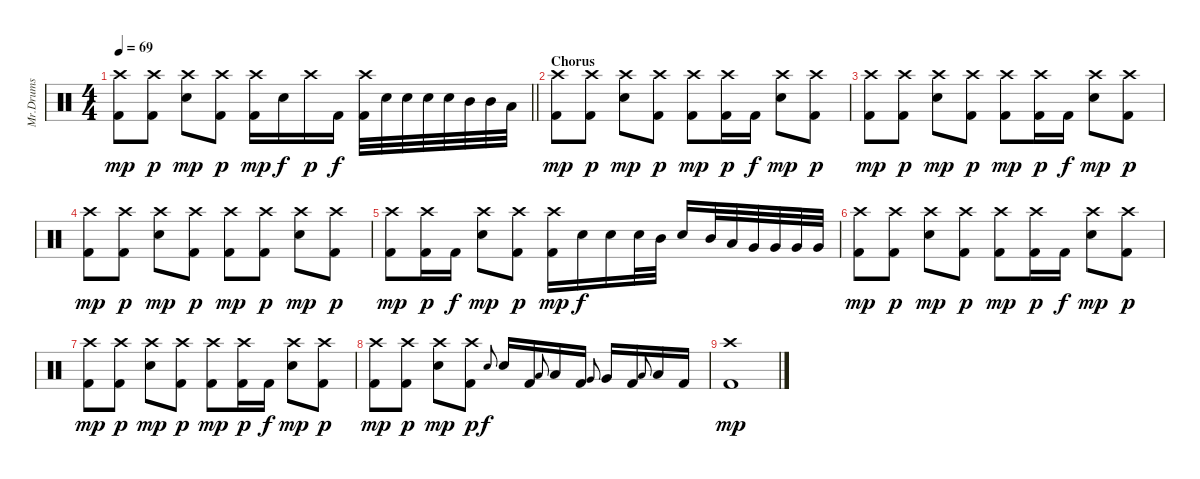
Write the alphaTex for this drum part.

\track ("Mr.Drums" "Mr.Drums") {instrument percussion}
\staff {score}
\articulation defaults
\ts (4 4)
\tempo 69
\clef neutral
\barLineRight lightlight
\ks c
("Crash high (hit)" "Kick (hit) 2").8{dy mp} ("Crash high (hit)" "Kick (hit) 2").8{dy p} ("Crash high (hit)" "Electric Snare (hit)").8{dy mp} ("Crash high (hit)" "Kick (hit) 2").8{dy p} ("Crash high (hit)" "Kick (hit) 2").16{dy mp} "Electric Snare (hit)".16{dy f} "Crash high (hit)".16{dy p} "Kick (hit) 2".16{dy f} ("Crash high (hit)" "Kick (hit) 2").32 "Electric Snare (hit)".32 "Electric Snare (hit)".32 "Electric Snare (hit)".32 "Electric Snare (hit)".32 "Mid Tom (hit)".32 "Mid Tom (hit)".32 "Low Tom (hit)".32 |
\section ("" "Chorus")
("Crash high (hit)" "Kick (hit) 2").8{dy mp} ("Crash high (hit)" "Kick (hit) 2").8{dy p} ("Crash high (hit)" "Electric Snare (hit)").8{dy mp} ("Crash high (hit)" "Kick (hit) 2").8{dy p} ("Crash high (hit)" "Kick (hit) 2").8{dy mp} ("Crash high (hit)" "Kick (hit) 2").16{dy p} "Kick (hit) 2".16{dy f} ("Crash high (hit)" "Electric Snare (hit)").8{dy mp} ("Crash high (hit)" "Kick (hit) 2").8{dy p} |
("Crash high (hit)" "Kick (hit) 2").8{dy mp} ("Crash high (hit)" "Kick (hit) 2").8{dy p} ("Crash high (hit)" "Electric Snare (hit)").8{dy mp} ("Crash high (hit)" "Kick (hit) 2").8{dy p} ("Crash high (hit)" "Kick (hit) 2").8{dy mp} ("Crash high (hit)" "Kick (hit) 2").16{dy p} "Kick (hit) 2".16{dy f} ("Crash high (hit)" "Electric Snare (hit)").8{dy mp} ("Crash high (hit)" "Kick (hit) 2").8{dy p} |
("Crash high (hit)" "Kick (hit) 2").8{dy mp} ("Crash high (hit)" "Kick (hit) 2").8{dy p} ("Crash high (hit)" "Electric Snare (hit)").8{dy mp} ("Crash high (hit)" "Kick (hit) 2").8{dy p} ("Crash high (hit)" "Kick (hit) 2").8{dy mp} ("Crash high (hit)" "Kick (hit) 2").8{dy p} ("Crash high (hit)" "Electric Snare (hit)").8{dy mp} ("Crash high (hit)" "Kick (hit) 2").8{dy p} |
("Crash high (hit)" "Kick (hit) 2").8{dy mp} ("Crash high (hit)" "Kick (hit) 2").16{dy p} "Kick (hit) 2".16{dy f} ("Crash high (hit)" "Electric Snare (hit)").8{dy mp} ("Crash high (hit)" "Kick (hit) 2").8{dy p} ("Crash high (hit)" "Kick (hit) 2").16{dy mp} "Electric Snare (hit)".16{dy f} "Electric Snare (hit)".16 "Electric Snare (hit)".32 "Mid Tom (hit)".32 "Electric Snare (hit)".16 "Mid Tom (hit)".32 "Low Tom (hit)".32 "Very Low Tom (hit)".32 "Very Low Tom (hit)".32 "Very Low Tom (hit)".32 "Very Low Tom (hit)".32 |
("Crash high (hit)" "Kick (hit) 2").8{dy mp} ("Crash high (hit)" "Kick (hit) 2").8{dy p} ("Crash high (hit)" "Electric Snare (hit)").8{dy mp} ("Crash high (hit)" "Kick (hit) 2").8{dy p} ("Crash high (hit)" "Kick (hit) 2").8{dy mp} ("Crash high (hit)" "Kick (hit) 2").16{dy p} "Kick (hit) 2".16{dy f} ("Crash high (hit)" "Electric Snare (hit)").8{dy mp} ("Crash high (hit)" "Kick (hit) 2").8{dy p} |
("Crash high (hit)" "Kick (hit) 2").8{dy mp} ("Crash high (hit)" "Kick (hit) 2").8{dy p} ("Crash high (hit)" "Electric Snare (hit)").8{dy mp} ("Crash high (hit)" "Kick (hit) 2").8{dy p} ("Crash high (hit)" "Kick (hit) 2").8{dy mp} ("Crash high (hit)" "Kick (hit) 2").16{dy p} "Kick (hit) 2".16{dy f} ("Crash high (hit)" "Electric Snare (hit)").8{dy mp} ("Crash high (hit)" "Kick (hit) 2").8{dy p} |
("Crash high (hit)" "Kick (hit) 2").8{dy mp} ("Crash high (hit)" "Kick (hit) 2").8{dy p} ("Crash high (hit)" "Electric Snare (hit)").8{dy mp} ("Crash high (hit)" "Kick (hit) 2").8{dy p} "Electric Snare (hit)".8{gr onbeat dy f} "Electric Snare (hit)".16 "Kick (hit) 2".16 "Low Tom (hit)".8{gr onbeat} "Low Tom (hit)".16 "Kick (hit) 2".16 "Very Low Tom (hit)".8{gr onbeat} "Very Low Tom (hit)".16 "Kick (hit) 2".16 "Low Floor Tom (hit)".8{gr onbeat} "Low Floor Tom (hit)".16 "Kick (hit) 2".16 |
("Crash high (hit)" "Kick (hit) 2").1{dy mp}
